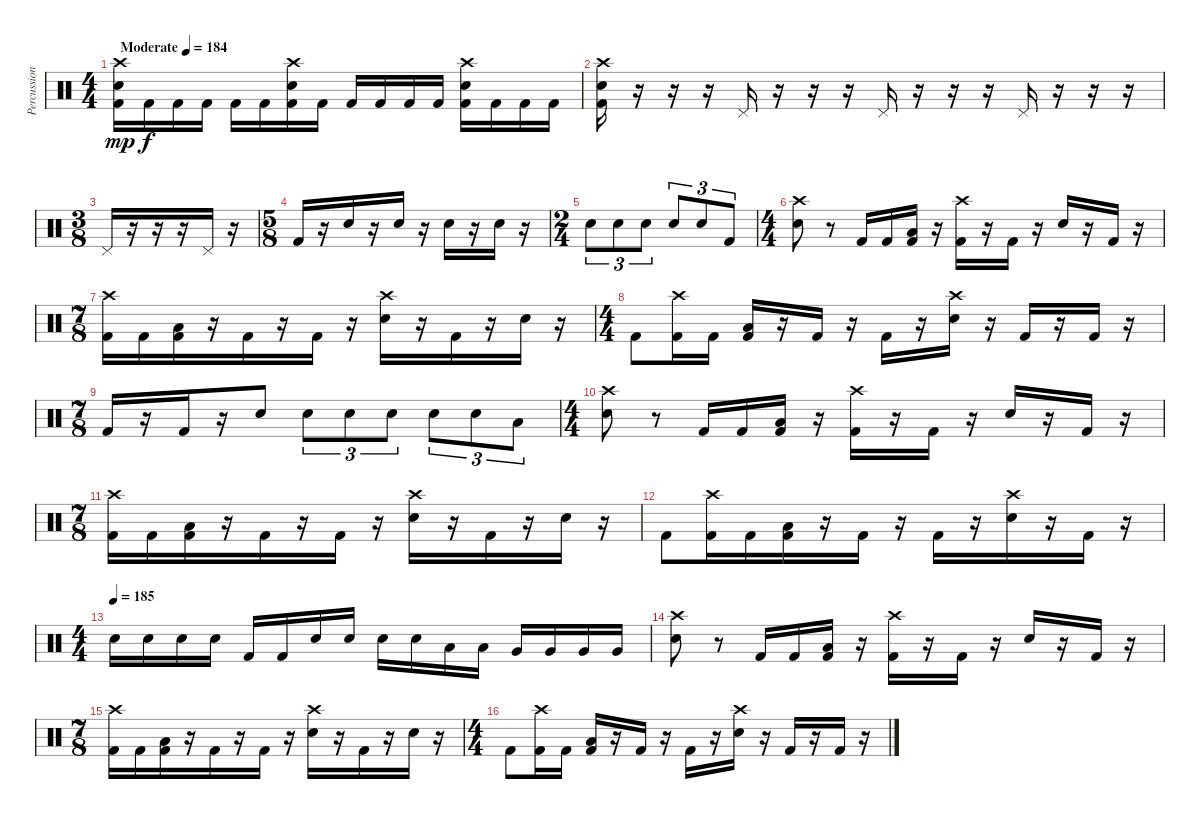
\track ("Percussion" "Percussion") {instrument percussion}
\staff {score}
\articulation defaults
\ts (4 4)
\tempo (184 "Moderate")
\clef neutral
\ks c
("Crash high (hit)" "Electric Snare (hit)" "Kick (hit) 2").16{dy mp} "Kick (hit) 2".16{dy f} "Kick (hit) 2".16 "Kick (hit) 2".16 "Kick (hit) 2".16 "Kick (hit) 2".16 ("Crash high (hit)" "Electric Snare (hit)" "Kick (hit) 2").16 "Kick (hit) 2".16 "Kick (hit) 2".16 "Kick (hit) 2".16 "Kick (hit) 2".16 "Kick (hit) 2".16 ("Crash high (hit)" "Electric Snare (hit)" "Kick (hit) 2").16 "Kick (hit) 2".16 "Kick (hit) 2".16 "Kick (hit) 2".16 |
("Crash high (hit)" "Electric Snare (hit)" "Kick (hit) 2").16 r.16 r.16 r.16 "Pedal Hi-Hat (hit)".16 r.16 r.16 r.16 "Pedal Hi-Hat (hit)".16 r.16 r.16 r.16 "Pedal Hi-Hat (hit)".16 r.16 r.16 r.16 |
\ts (3 8)
"Pedal Hi-Hat (hit)".16 r.16 r.16 r.16 "Pedal Hi-Hat (hit)".16 r.16 |
\ts (5 8)
"Kick (hit) 2".16 r.16 "Electric Snare (hit)".16 r.16 "Electric Snare (hit)".16 r.16 "Electric Snare (hit)".16 r.16 "Electric Snare (hit)".16 r.16 |
\ts (2 4)
"Electric Snare (hit)".8{tu (3 2)} "Electric Snare (hit)".8{tu (3 2)} "Electric Snare (hit)".8{tu (3 2)} "Electric Snare (hit)".8{tu (3 2)} "Electric Snare (hit)".8{tu (3 2)} "Kick (hit) 2".8{tu (3 2)} |
\ts (4 4)
("Crash high (hit)" "Electric Snare (hit)").8 r.8 "Kick (hit) 2".16 "Kick (hit) 2".16 ("Low Tom (hit)" "Kick (hit) 2").16 r.16 ("Crash high (hit)" "Kick (hit) 2").16 r.16 "Kick (hit) 2".16 r.16 "Electric Snare (hit)".16 r.16 "Kick (hit) 2".16 r.16 |
\ts (7 8)
("Crash high (hit)" "Kick (hit) 2").16 "Kick (hit) 2".16 ("Low Tom (hit)" "Kick (hit) 2").16 r.16 "Kick (hit) 2".16 r.16 "Kick (hit) 2".16 r.16 ("Crash high (hit)" "Electric Snare (hit)").16 r.16 "Kick (hit) 2".16 r.16 "Electric Snare (hit)".16 r.16 |
\ts (4 4)
"Kick (hit) 2".8 ("Crash high (hit)" "Kick (hit) 2").16 "Kick (hit) 2".16 ("Low Tom (hit)" "Kick (hit) 2").16 r.16 "Kick (hit) 2".16 r.16 "Kick (hit) 2".16 r.16 ("Crash high (hit)" "Electric Snare (hit)").16 r.16 "Kick (hit) 2".16 r.16 "Kick (hit) 2".16 r.16 |
\ts (7 8)
"Kick (hit) 2".16 r.16 "Kick (hit) 2".16 r.16 "Electric Snare (hit)".8 "Electric Snare (hit)".8{tu (3 2)} "Electric Snare (hit)".8{tu (3 2)} "Electric Snare (hit)".8{tu (3 2)} "Electric Snare (hit)".8{tu (3 2)} "Electric Snare (hit)".8{tu (3 2)} "Low Tom (hit)".8{tu (3 2)} |
\ts (4 4)
("Crash high (hit)" "Electric Snare (hit)").8 r.8 "Kick (hit) 2".16 "Kick (hit) 2".16 ("Low Tom (hit)" "Kick (hit) 2").16 r.16 ("Crash high (hit)" "Kick (hit) 2").16 r.16 "Kick (hit) 2".16 r.16 "Electric Snare (hit)".16 r.16 "Kick (hit) 2".16 r.16 |
\ts (7 8)
("Crash high (hit)" "Kick (hit) 2").16 "Kick (hit) 2".16 ("Low Tom (hit)" "Kick (hit) 2").16 r.16 "Kick (hit) 2".16 r.16 "Kick (hit) 2".16 r.16 ("Crash high (hit)" "Electric Snare (hit)").16 r.16 "Kick (hit) 2".16 r.16 "Electric Snare (hit)".16 r.16 |
"Kick (hit) 2".8 ("Crash high (hit)" "Kick (hit) 2").16 "Kick (hit) 2".16 ("Low Tom (hit)" "Kick (hit) 2").16 r.16 "Kick (hit) 2".16 r.16 "Kick (hit) 2".16 r.16 ("Crash high (hit)" "Electric Snare (hit)").16 r.16 "Kick (hit) 2".16 r.16 |
\ts (4 4)
\tempo (185)
"Electric Snare (hit)".16 "Electric Snare (hit)".16 "Electric Snare (hit)".16 "Electric Snare (hit)".16 "Kick (hit) 2".16 "Kick (hit) 2".16 "Electric Snare (hit)".16 "Electric Snare (hit)".16 "Electric Snare (hit)".16 "Electric Snare (hit)".16 "Low Tom (hit)".16 "Low Tom (hit)".16 "Very Low Tom (hit)".16 "Very Low Tom (hit)".16 "Very Low Tom (hit)".16 "Very Low Tom (hit)".16 |
("Crash high (hit)" "Electric Snare (hit)").8 r.8 "Kick (hit) 2".16 "Kick (hit) 2".16 ("Low Tom (hit)" "Kick (hit) 2").16 r.16 ("Crash high (hit)" "Kick (hit) 2").16 r.16 "Kick (hit) 2".16 r.16 "Electric Snare (hit)".16 r.16 "Kick (hit) 2".16 r.16 |
\ts (7 8)
("Crash high (hit)" "Kick (hit) 2").16 "Kick (hit) 2".16 ("Low Tom (hit)" "Kick (hit) 2").16 r.16 "Kick (hit) 2".16 r.16 "Kick (hit) 2".16 r.16 ("Crash high (hit)" "Electric Snare (hit)").16 r.16 "Kick (hit) 2".16 r.16 "Electric Snare (hit)".16 r.16 |
\ts (4 4)
"Kick (hit) 2".8 ("Crash high (hit)" "Kick (hit) 2").16 "Kick (hit) 2".16 ("Low Tom (hit)" "Kick (hit) 2").16 r.16 "Kick (hit) 2".16 r.16 "Kick (hit) 2".16 r.16 ("Crash high (hit)" "Electric Snare (hit)").16 r.16 "Kick (hit) 2".16 r.16 "Kick (hit) 2".16 r.16
